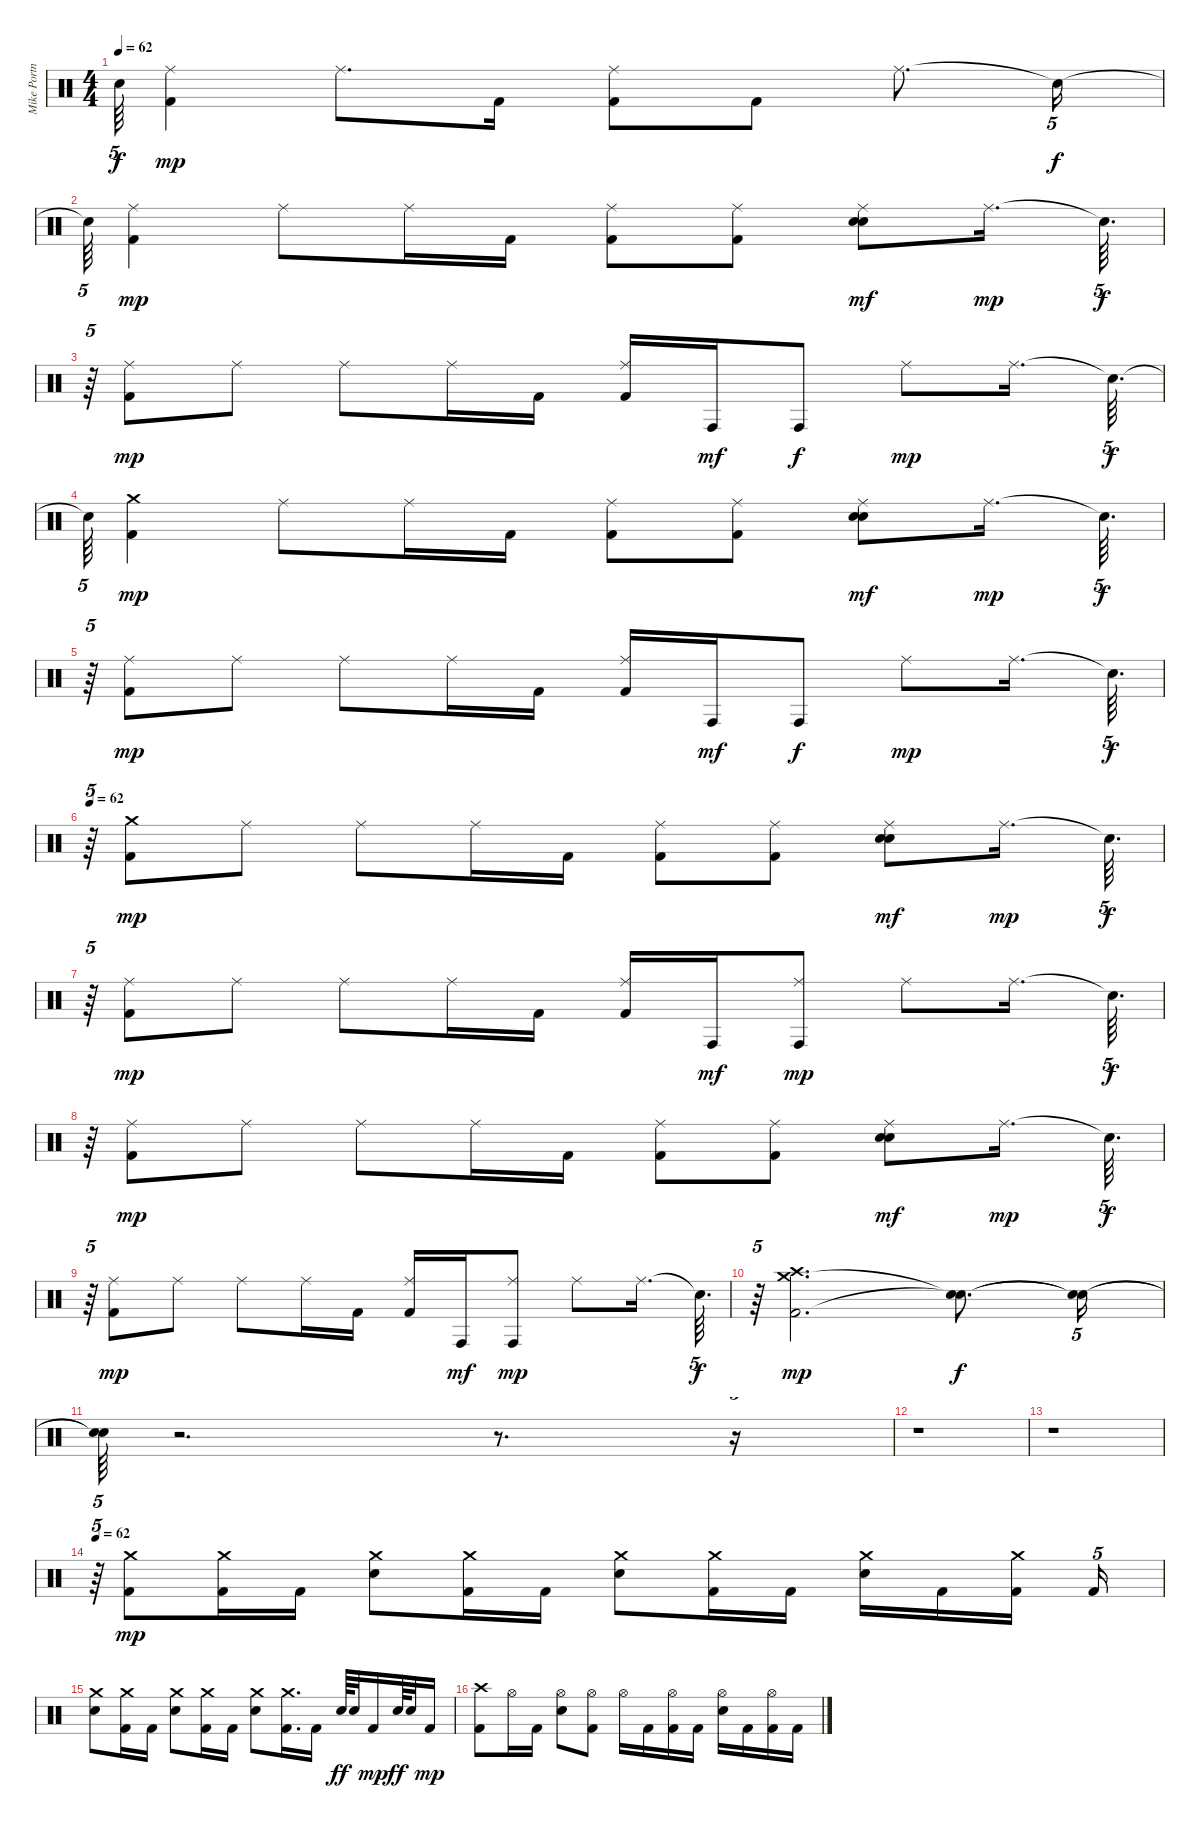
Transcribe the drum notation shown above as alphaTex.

\track ("Mike Portnoy" "Mike Portn") {instrument percussion}
\staff {score}
\articulation defaults
\ts (4 4)
\tempo 62
\clef neutral
\ks c "Snare (hit)"{t}.64{tu (5 4) dy f}
("Kick (hit) 2" "Ride (middle)").4{dy mp} "Ride (middle)".8{d} "Kick (hit) 2".16 ("Kick (hit) 2" "Ride (middle)").8 "Kick (hit) 2".8 "Ride (middle)".8{d} "Snare (hit)"{t}.16{tu (5 4) dy f} |
"Snare (hit)"{t}.64{tu (5 4)} ("Kick (hit) 2" "Ride (middle)").4{dy mp} "Ride (middle)".8 "Ride (middle)".16 "Kick (hit) 2".16 ("Kick (hit) 2" "Ride (middle)").8 ("Kick (hit) 2" "Ride (middle)").8 ("Snare (hit)" "Ride (middle)" "Snare (hit)").8{dy mf balance 15} "Ride (middle)".16{d dy mp} "Snare (hit)"{t}.64{d tu (5 4) dy f} |
r.64{tu (5 4)} ("Kick (hit) 2" "Ride (middle)").8{dy mp} "Ride (middle)".8 "Ride (middle)".8 "Ride (middle)".16 "Kick (hit) 2".16 ("Kick (hit) 2" "Ride (middle)").16 "Conga high (hit)".16{dy mf} "Conga high (hit)".8{dy f} "Ride (middle)".8{dy mp} "Ride (middle)".16{d} "Snare (hit)"{t}.64{d tu (5 4) dy f} |
"Snare (hit)"{t}.64{tu (5 4)} ("Kick (hit) 2" "Crash medium (hit)").4{dy mp} "Ride (middle)".8 "Ride (middle)".16 "Kick (hit) 2".16 ("Kick (hit) 2" "Ride (middle)").8 ("Kick (hit) 2" "Ride (middle)").8 ("Snare (hit)" "Ride (middle)" "Snare (hit)").8{dy mf} "Ride (middle)".16{d dy mp} "Snare (hit)"{t}.64{d tu (5 4) dy f} |
r.64{tu (5 4)} ("Kick (hit) 2" "Ride (middle)").8{dy mp} "Ride (middle)".8 "Ride (middle)".8 "Ride (middle)".16 "Kick (hit) 2".16 ("Kick (hit) 2" "Ride (middle)").16 "Conga high (hit)".16{dy mf} "Conga high (hit)".8{dy f} "Ride (middle)".8{dy mp} "Ride (middle)".16{d} "Snare (hit)"{t}.64{d tu (5 4) dy f} |
\tempo 62
r.64{tu (5 4)} ("Kick (hit) 2" "Crash medium (hit)").8{dy mp} "Ride (middle)".8 "Ride (middle)".8 "Ride (middle)".16 "Kick (hit) 2".16 ("Kick (hit) 2" "Ride (middle)").8 ("Kick (hit) 2" "Ride (middle)").8 ("Snare (hit)" "Ride (middle)" "Snare (hit)").8{dy mf} "Ride (middle)".16{d dy mp} "Snare (hit)"{t}.64{d tu (5 4) dy f} |
r.64{tu (5 4)} ("Kick (hit) 2" "Ride (middle)").8{dy mp} "Ride (middle)".8 "Ride (middle)".8 "Ride (middle)".16 "Kick (hit) 2".16 ("Kick (hit) 2" "Ride (middle)").16 "Conga high (hit)".16{dy mf} ("Ride (middle)" "Conga high (hit)").8{dy mp} "Ride (middle)".8 "Ride (middle)".16{d} "Snare (hit)"{t}.64{d tu (5 4) dy f} |
r.64{tu (5 4)} ("Kick (hit) 2" "Ride (middle)").8{dy mp} "Ride (middle)".8 "Ride (middle)".8 "Ride (middle)".16 "Kick (hit) 2".16 ("Kick (hit) 2" "Ride (middle)").8 ("Kick (hit) 2" "Ride (middle)").8 ("Snare (hit)" "Ride (middle)" "Snare (hit)").8{dy mf} "Ride (middle)".16{d dy mp} "Snare (hit)"{t}.64{d tu (5 4) dy f} |
r.64{tu (5 4)} ("Kick (hit) 2" "Ride (middle)").8{dy mp} "Ride (middle)".8 "Ride (middle)".8 "Ride (middle)".16 "Kick (hit) 2".16 ("Kick (hit) 2" "Ride (middle)").16 "Conga high (hit)".16{dy mf} ("Ride (middle)" "Conga high (hit)").8{dy mp} "Ride (middle)".8 "Ride (middle)".16{d} "Snare (hit)"{t}.64{d tu (5 4) dy f} |
r.64{tu (5 4)} ("Kick (hit) 2" "Crash medium (hit)" "Crash high (hit)").2{d dy mp} ("Snare (hit)"{t} "Snare (hit)"{t}).8{d dy f} ("Snare (hit)"{t} "Snare (hit)"{t}).16{tu (5 4)} |
("Snare (hit)"{t} "Snare (hit)"{t}).64{tu (5 4)} r.2{d} r.8{d} r.16{tu (5 4)} |
r.1 |
r.1 |
\tempo 62
r.64{tu (5 4)} ("Kick (hit) 2" "Crash medium (hit)").8{dy mp} ("Kick (hit) 2" "Crash medium (hit)").16 "Kick (hit) 2".16 ("Electric Snare (hit)" "Crash medium (hit)").8 ("Kick (hit) 2" "Crash medium (hit)").16 "Kick (hit) 2".16 ("Electric Snare (hit)" "Crash medium (hit)").8 ("Kick (hit) 2" "Crash medium (hit)").16 "Kick (hit) 2".16 ("Electric Snare (hit)" "Crash medium (hit)").16 "Kick (hit) 2".16 ("Kick (hit) 2" "Crash medium (hit)").16 "Kick (hit) 2".16{tu (5 4)} |
("Electric Snare (hit)" "Crash medium (hit)").8 ("Kick (hit) 2" "Crash medium (hit)").16 "Kick (hit) 2".16 ("Electric Snare (hit)" "Crash medium (hit)").8 ("Kick (hit) 2" "Crash medium (hit)").16 "Kick (hit) 2".16 ("Electric Snare (hit)" "Crash medium (hit)").8 ("Kick (hit) 2" "Crash medium (hit)").16{d} "Kick (hit) 2".16 "Electric Snare (hit)".64{dy ff} "Electric Snare (hit)".32 "Kick (hit) 2".16{dy mp} "Electric Snare (hit)".64{dy ff} "Electric Snare (hit)".32 "Kick (hit) 2".16{dy mp} |
("Kick (hit) 2" "Crash high (hit)").8 "Hi-Hat (open)".16 "Kick (hit) 2".16 ("Electric Snare (hit)" "Hi-Hat (open)").8 ("Kick (hit) 2" "Hi-Hat (open)").8 "Hi-Hat (open)".16 "Kick (hit) 2".16 ("Kick (hit) 2" "Hi-Hat (open)").16 "Kick (hit) 2".16 ("Electric Snare (hit)" "Hi-Hat (open)").16 "Kick (hit) 2".16 ("Kick (hit) 2" "Hi-Hat (open)").16 "Kick (hit) 2".16
